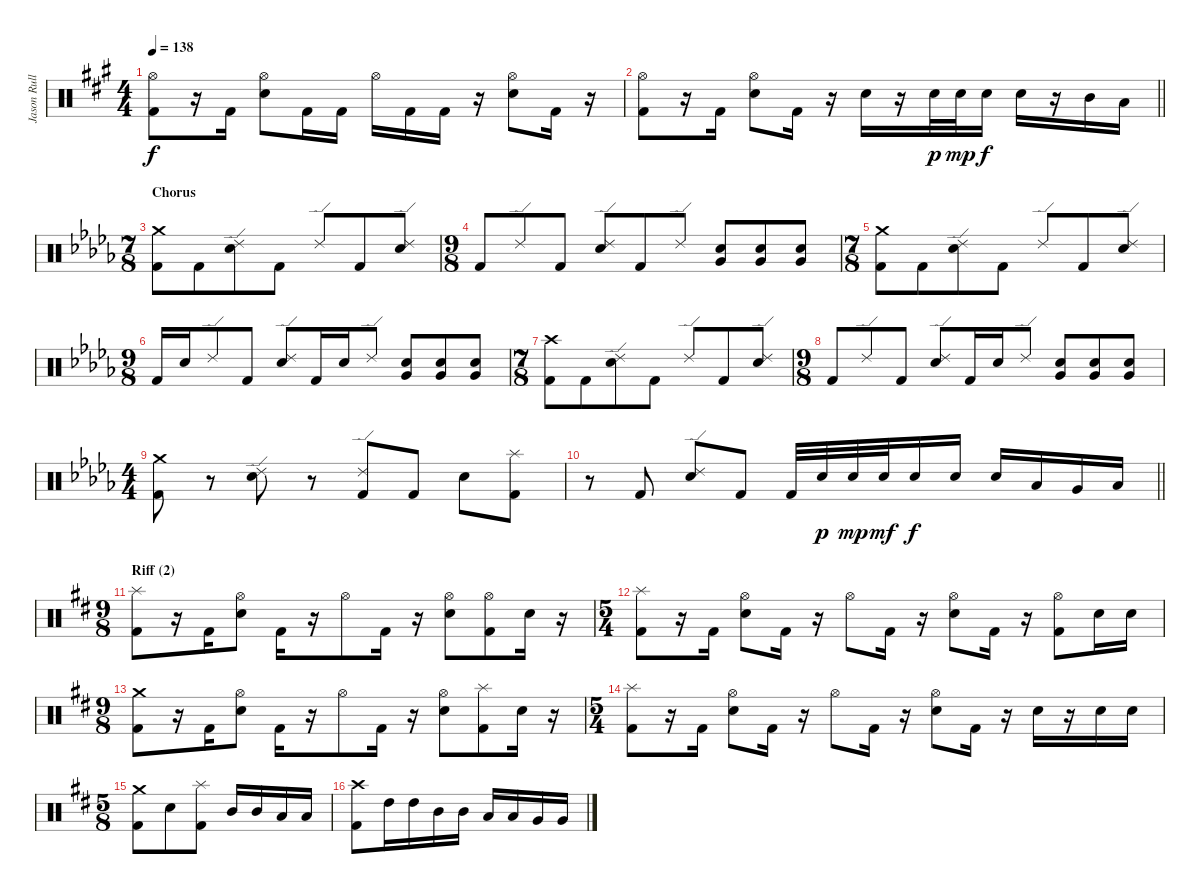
\track ("Jason Rullo (drums)" "Jason Rull") {instrument percussion}
\staff {score}
\articulation defaults
\ts (4 4)
\tempo 138
\clef neutral
\ks f#minor
("Hi-Hat (open)" "Kick (hit) 2").8{dy f} r.16 "Kick (hit) 2".16 ("Hi-Hat (open)" "Electric Snare (hit)").8 "Kick (hit) 2".16 "Kick (hit) 2".16 "Hi-Hat (open)".16 "Kick (hit) 2".16 "Kick (hit) 2".16 r.16 ("Hi-Hat (open)" "Electric Snare (hit)").8 "Kick (hit) 2".16 r.16 |
\barLineRight lightlight
("Hi-Hat (open)" "Kick (hit) 2").8 r.16 "Kick (hit) 2".16 ("Hi-Hat (open)" "Electric Snare (hit)").8 "Kick (hit) 2".16 r.16 "Electric Snare (hit)".16 r.16 "Electric Snare (hit)".32{dy p} "Electric Snare (hit)".32{dy mp} "Electric Snare (hit)".16{dy f} "Electric Snare (hit)".16 r.16 "Mid Tom (hit)".16 "Low Tom (hit)".16 |
\ts (7 8)
\section ("" "Chorus")
\ks bbminor
("Kick (hit) 2" "Crash medium (hit)").8 "Kick (hit) 2".8 ("Electric Snare (hit)" "Ride (edge) 2").8 "Kick (hit) 2".8 "Ride (edge) 2".8 "Kick (hit) 2".8 ("Electric Snare (hit)" "Ride (edge) 2").8 |
\ts (9 8)
"Kick (hit) 2".8 "Ride (edge) 2".8 "Kick (hit) 2".8 ("Electric Snare (hit)" "Ride (edge) 2").8 "Kick (hit) 2".8 "Ride (edge) 2".8 ("Very Low Tom (hit)" "Electric Snare (hit)").8 ("Very Low Tom (hit)" "Electric Snare (hit)").8 ("Very Low Tom (hit)" "Electric Snare (hit)").8 |
\ts (7 8)
("Kick (hit) 2" "Crash medium (hit)").8 "Kick (hit) 2".8 ("Electric Snare (hit)" "Ride (edge) 2").8 "Kick (hit) 2".8 "Ride (edge) 2".8 "Kick (hit) 2".8 ("Electric Snare (hit)" "Ride (edge) 2").8 |
\ts (9 8)
"Kick (hit) 2".16 "Electric Snare (hit)".16 "Ride (edge) 2".8 "Kick (hit) 2".8 ("Electric Snare (hit)" "Ride (edge) 2").8 "Kick (hit) 2".16 "Electric Snare (hit)".16 "Ride (edge) 2".8 ("Very Low Tom (hit)" "Electric Snare (hit)").8 ("Very Low Tom (hit)" "Electric Snare (hit)").8 ("Very Low Tom (hit)" "Electric Snare (hit)").8 |
\ts (7 8)
("Crash high (hit)" "Kick (hit) 2").8 "Kick (hit) 2".8 ("Electric Snare (hit)" "Ride (edge) 2").8 "Kick (hit) 2".8 "Ride (edge) 2".8 "Kick (hit) 2".8 ("Electric Snare (hit)" "Ride (edge) 2").8 |
\ts (9 8)
"Kick (hit) 2".8 "Ride (edge) 2".8 "Kick (hit) 2".8 ("Electric Snare (hit)" "Ride (edge) 2").8 "Kick (hit) 2".16 "Electric Snare (hit)".16 "Ride (edge) 2".8 ("Very Low Tom (hit)" "Electric Snare (hit)").8 ("Very Low Tom (hit)" "Electric Snare (hit)").8 ("Very Low Tom (hit)" "Electric Snare (hit)").8 |
\ts (4 4)
("Kick (hit) 2" "Crash medium (hit)").8 r.8 ("Electric Snare (hit)" "Ride (edge) 2").8 r.8 ("Kick (hit) 2" "Ride (edge) 2").8 "Kick (hit) 2".8 "Electric Snare (hit)".8 ("Splash (hit)" "Kick (hit) 2").8 |
\barLineRight lightlight
r.8 "Kick (hit) 2".8 ("Ride (edge) 2" "Electric Snare (hit)").8 "Kick (hit) 2".8 "Kick (hit) 2".32 "Electric Snare (hit)".32{dy p} "Electric Snare (hit)".32{dy mp} "Electric Snare (hit)".32{dy mf} "Electric Snare (hit)".16{dy f} "Electric Snare (hit)".16 "Electric Snare (hit)".16 "Low Tom (hit)".16 "Very Low Tom (hit)".16 "Low Floor Tom (hit)".16 |
\ts (9 8)
\section ("" "Riff (2)")
\ks bminor
("Splash (hit)" "Kick (hit) 2").8 r.16 "Kick (hit) 2".16 ("Hi-Hat (open)" "Electric Snare (hit)").8 "Kick (hit) 2".16 r.16 "Hi-Hat (open)".8 "Kick (hit) 2".16 r.16 ("Hi-Hat (open)" "Electric Snare (hit)").8 ("Hi-Hat (open)" "Kick (hit) 2").8 "Electric Snare (hit)".16 r.16 |
\ts (5 4)
("Splash (hit)" "Kick (hit) 2").8 r.16 "Kick (hit) 2".16 ("Hi-Hat (open)" "Electric Snare (hit)").8 "Kick (hit) 2".16 r.16 "Hi-Hat (open)".8 "Kick (hit) 2".16 r.16 ("Hi-Hat (open)" "Electric Snare (hit)").8 "Kick (hit) 2".16 r.16 ("Hi-Hat (open)" "Kick (hit) 2").8 "Electric Snare (hit)".16 "Electric Snare (hit)".16 |
\ts (9 8)
("Crash medium (hit)" "Kick (hit) 2").8 r.16 "Kick (hit) 2".16 ("Hi-Hat (open)" "Electric Snare (hit)").8 "Kick (hit) 2".16 r.16 "Hi-Hat (open)".8 "Kick (hit) 2".16 r.16 ("Hi-Hat (open)" "Electric Snare (hit)").8 ("Splash (hit)" "Kick (hit) 2").8 "Electric Snare (hit)".16 r.16 |
\ts (5 4)
("Splash (hit)" "Kick (hit) 2").8 r.16 "Kick (hit) 2".16 ("Hi-Hat (open)" "Electric Snare (hit)").8 "Kick (hit) 2".16 r.16 "Hi-Hat (open)".8 "Kick (hit) 2".16 r.16 ("Hi-Hat (open)" "Electric Snare (hit)").8 "Kick (hit) 2".16 r.16 "Electric Snare (hit)".16 r.16 "Electric Snare (hit)".16 "Electric Snare (hit)".16 |
\ts (5 8)
("Crash medium (hit)" "Kick (hit) 2").8 "Electric Snare (hit)".8 ("Splash (hit)" "Kick (hit) 2").8 "Mid Tom (hit)".16 "Mid Tom (hit)".16 "Low Tom (hit)".16 "Low Tom (hit)".16 |
("Crash high (hit)" "Kick (hit) 2").8 "High Tom (hit)".16 "High Tom (hit)".16 "Mid Tom (hit)".16 "Mid Tom (hit)".16 "Low Tom (hit)".16 "Low Tom (hit)".16 "Very Low Tom (hit)".16 "Very Low Tom (hit)".16
